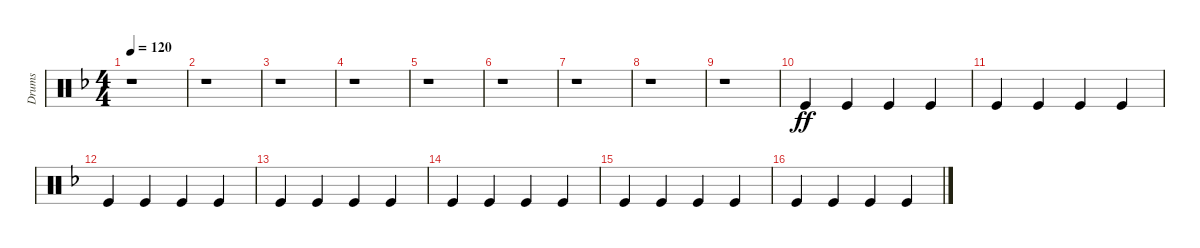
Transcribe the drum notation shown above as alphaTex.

\track ("Drums" "Drums") {instrument percussion}
\staff {score}
\articulation defaults
\ts (4 4)
\tempo 120
\clef neutral
\ks f
r.1{dy ff} |
r.1 |
r.1 |
r.1 |
r.1 |
r.1 |
r.1 |
r.1 |
r.1 |
"Kick (hit)".4 "Kick (hit)".4 "Kick (hit)".4 "Kick (hit)".4 |
"Kick (hit)".4 "Kick (hit)".4 "Kick (hit)".4 "Kick (hit)".4 |
"Kick (hit)".4 "Kick (hit)".4 "Kick (hit)".4 "Kick (hit)".4 |
"Kick (hit)".4 "Kick (hit)".4 "Kick (hit)".4 "Kick (hit)".4 |
"Kick (hit)".4 "Kick (hit)".4 "Kick (hit)".4 "Kick (hit)".4 |
"Kick (hit)".4 "Kick (hit)".4 "Kick (hit)".4 "Kick (hit)".4 |
"Kick (hit)".4 "Kick (hit)".4 "Kick (hit)".4 "Kick (hit)".4
